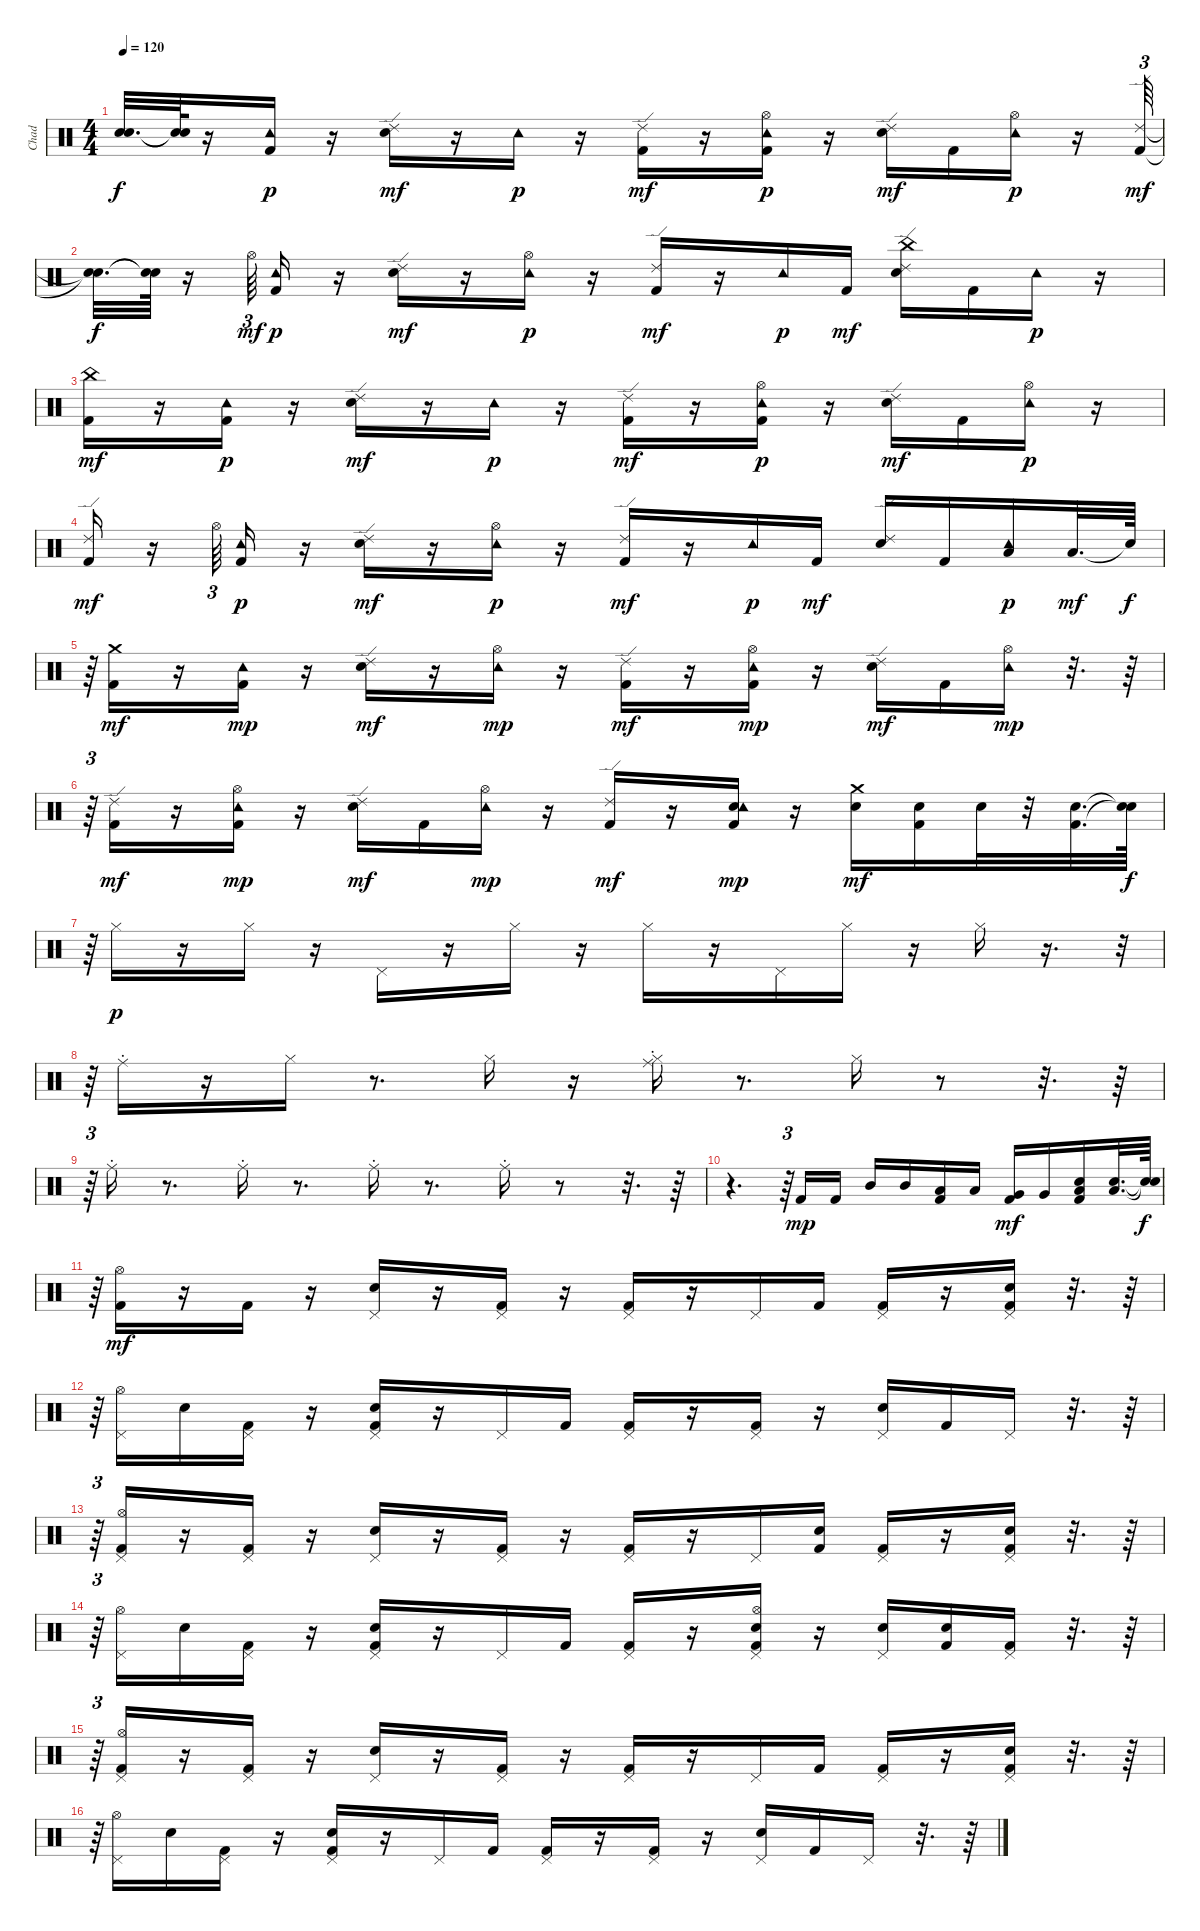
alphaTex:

\track ("Chad" "Chad") {instrument percussion}
\staff {score}
\articulation defaults
\ts (4 4)
\tempo 120
\clef neutral
\ks c
("Snare (hit)"{t} "Snare (hit)"{t}).32{d dy f} ("Snare (hit)"{t} "Snare (hit)"{t}).64 r.16 ("Kick (hit) 2" "Tambourine (hit)").16{dy p} r.16 ("Snare (hit) 2" "Ride (edge) 2").16{dy mf} r.16 "Tambourine (hit)".16{dy p} r.16 ("Kick (hit) 2" "Ride (edge) 2").16{dy mf} r.16 ("Kick (hit) 2" "Hi-Hat (open)" "Tambourine (hit)").16{dy p} r.16 ("Snare (hit) 2" "Ride (edge) 2").16{dy mf} "Kick (hit) 2".16 ("Hi-Hat (open)" "Tambourine (hit)").16{dy p} r.16 ("Kick (hit) 2" "Ride (edge) 2").64{tu (3 2) dy mf} |
("Snare (hit)"{t} "Snare (hit)"{t}).32{d dy f} ("Snare (hit)"{t} "Snare (hit)"{t}).64 r.16 "Hi-Hat (open)".64{tu (3 2) dy mf} ("Kick (hit) 2" "Tambourine (hit)").16{dy p} r.16 ("Snare (hit) 2" "Ride (edge) 2").16{dy mf} r.16 ("Hi-Hat (open)" "Tambourine (hit)").16{dy p} r.16 ("Kick (hit) 2" "Ride (edge) 2").16{dy mf} r.16 "Tambourine (hit)".16{dy p} "Kick (hit) 2".16{dy mf} ("Snare (hit) 2" "China (hit)" "Ride (edge) 2").16 "Kick (hit) 2".16 "Tambourine (hit)".16{dy p} r.16 |
("Kick (hit) 2" "China (hit)").16{dy mf} r.16 ("Kick (hit) 2" "Tambourine (hit)").16{dy p} r.16 ("Snare (hit) 2" "Ride (edge) 2").16{dy mf} r.16 "Tambourine (hit)".16{dy p} r.16 ("Kick (hit) 2" "Ride (edge) 2").16{dy mf} r.16 ("Kick (hit) 2" "Hi-Hat (open)" "Tambourine (hit)").16{dy p} r.16 ("Snare (hit) 2" "Ride (edge) 2").16{dy mf} "Kick (hit) 2".16 ("Hi-Hat (open)" "Tambourine (hit)").16{dy p} r.16 |
("Kick (hit) 2" "Ride (edge) 2").16{dy mf} r.16 "Hi-Hat (open)".64{tu (3 2)} ("Kick (hit) 2" "Tambourine (hit)").16{dy p} r.16 ("Snare (hit) 2" "Ride (edge) 2").16{dy mf} r.16 ("Hi-Hat (open)" "Tambourine (hit)").16{dy p} r.16 ("Kick (hit) 2" "Ride (edge) 2").16{dy mf} r.16 "Tambourine (hit)".16{dy p} "Kick (hit) 2".16{dy mf} ("Snare (hit) 2" "Ride (edge) 2").16 "Kick (hit) 2".16 ("Low Floor Tom (hit)" "Tambourine (hit)").16{dy p} "Low Floor Tom (hit)".32{d dy mf} "Snare (hit)"{t}.64{dy f} |
r.64{tu (3 2)} ("Kick (hit) 2" "Crash medium (hit)").16{dy mf} r.16 ("Kick (hit) 2" "Tambourine (hit)").16{dy mp} r.16 ("Snare (hit) 2" "Ride (edge) 2").16{dy mf} r.16 ("Hi-Hat (open)" "Tambourine (hit)").16{dy mp} r.16 ("Kick (hit) 2" "Ride (edge) 2").16{dy mf} r.16 ("Kick (hit) 2" "Hi-Hat (open)" "Tambourine (hit)").16{dy mp} r.16 ("Snare (hit) 2" "Ride (edge) 2").16{dy mf} "Kick (hit) 2".16 ("Hi-Hat (open)" "Tambourine (hit)").16{dy mp} r.32{d} r.64 |
r.64{tu (3 2)} ("Kick (hit) 2" "Ride (edge) 2").16{dy mf} r.16 ("Kick (hit) 2" "Hi-Hat (open)" "Tambourine (hit)").16{dy mp} r.16 ("Snare (hit) 2" "Ride (edge) 2").16{dy mf} "Kick (hit) 2".16 ("Hi-Hat (open)" "Tambourine (hit)").16{dy mp} r.16 ("Kick (hit) 2" "Ride (edge) 2").16{dy mf} r.16 ("Kick (hit) 2" "Snare (hit) 2" "Tambourine (hit)").16{dy mp} r.16 ("Snare (hit) 2" "Crash medium (hit)").16{dy mf} ("Kick (hit) 2" "Snare (hit) 2").16 "Snare (hit) 2".32 r.32 ("Kick (hit) 2" "Snare (hit) 2").32{d} ("Snare (hit)"{t} "Snare (hit)"{t}).64{dy f} |
r.64{tu (3 2)} "Hi-Hat (closed)".16{dy p} r.16 "Hi-Hat (closed)".16 r.16 "Pedal Hi-Hat (hit)".16 r.16 "Hi-Hat (closed)".16 r.16 "Hi-Hat (closed)".16 r.16 "Pedal Hi-Hat (hit)".16 "Hi-Hat (closed)".16 r.16 "Hi-Hat (closed)".16 r.16{d} r.32{tu (3 2)} |
r.64{tu (3 2)} "Ride (choke)".16 r.16 "Hi-Hat (closed)".16 r.8{d} "Hi-Hat (closed)".16 r.16 ("Hi-Hat (closed)" "Ride (choke)").16 r.8{d} "Hi-Hat (closed)".16 r.8 r.32{d} r.64 |
r.64{tu (3 2)} "Ride (choke)".16 r.8{d} "Ride (choke)".16 r.8{d} "Ride (choke)".16 r.8{d} "Ride (choke)".16 r.8 r.32{d} r.64 |
r.4{d} r.64{tu (3 2)} "Kick (hit) 2".16{dy mp} "Kick (hit) 2".16 "Mid Tom (hit)".16 "Mid Tom (hit)".16 ("Kick (hit) 2" "Low Tom (hit)").16 "Low Tom (hit)".16 ("Kick (hit) 2" "Very Low Tom (hit)").16{dy mf} "Very Low Tom (hit)".16 ("Kick (hit) 2" "Snare (hit) 2" "Low Floor Tom (hit)").16 ("Snare (hit) 2" "Low Floor Tom (hit)").32{d} ("Snare (hit)"{t} "Snare (hit)"{t}).64{dy f} |
r.64{tu (3 2)} ("Kick (hit) 2" "Hi-Hat (open)").16{dy mf} r.16 "Kick (hit) 2".16 r.16 ("Snare (hit) 2" "Pedal Hi-Hat (hit)").16 r.16 ("Kick (hit) 2" "Pedal Hi-Hat (hit)").16 r.16 ("Kick (hit) 2" "Pedal Hi-Hat (hit)").16 r.16 "Pedal Hi-Hat (hit)".16 "Kick (hit) 2".16 ("Kick (hit) 2" "Pedal Hi-Hat (hit)").16 r.16 ("Kick (hit) 2" "Snare (hit) 2" "Pedal Hi-Hat (hit)").16 r.32{d} r.64 |
r.64{tu (3 2)} ("Pedal Hi-Hat (hit)" "Hi-Hat (open)").16 "Snare (hit) 2".16 ("Kick (hit) 2" "Pedal Hi-Hat (hit)").16 r.16 ("Kick (hit) 2" "Snare (hit) 2" "Pedal Hi-Hat (hit)").16 r.16 "Pedal Hi-Hat (hit)".16 "Kick (hit) 2".16 ("Kick (hit) 2" "Pedal Hi-Hat (hit)").16 r.16 ("Kick (hit) 2" "Pedal Hi-Hat (hit)").16 r.16 ("Snare (hit) 2" "Pedal Hi-Hat (hit)").16 "Kick (hit) 2".16 "Pedal Hi-Hat (hit)".16 r.32{d} r.64 |
r.64{tu (3 2)} ("Kick (hit) 2" "Pedal Hi-Hat (hit)" "Hi-Hat (open)").16 r.16 ("Kick (hit) 2" "Pedal Hi-Hat (hit)").16 r.16 ("Snare (hit) 2" "Pedal Hi-Hat (hit)").16 r.16 ("Kick (hit) 2" "Pedal Hi-Hat (hit)").16 r.16 ("Kick (hit) 2" "Pedal Hi-Hat (hit)").16 r.16 "Pedal Hi-Hat (hit)".16 ("Kick (hit) 2" "Snare (hit) 2").16 ("Kick (hit) 2" "Pedal Hi-Hat (hit)").16 r.16 ("Kick (hit) 2" "Snare (hit) 2" "Pedal Hi-Hat (hit)").16 r.32{d} r.64 |
r.64{tu (3 2)} ("Pedal Hi-Hat (hit)" "Hi-Hat (open)").16 "Snare (hit) 2".16 ("Kick (hit) 2" "Pedal Hi-Hat (hit)").16 r.16 ("Kick (hit) 2" "Snare (hit) 2" "Pedal Hi-Hat (hit)").16 r.16 "Pedal Hi-Hat (hit)".16 "Kick (hit) 2".16 ("Kick (hit) 2" "Pedal Hi-Hat (hit)").16 r.16 ("Kick (hit) 2" "Snare (hit) 2" "Pedal Hi-Hat (hit)" "Hi-Hat (open)").16 r.16 ("Snare (hit) 2" "Pedal Hi-Hat (hit)").16 ("Kick (hit) 2" "Snare (hit) 2").16 ("Kick (hit) 2" "Pedal Hi-Hat (hit)").16 r.32{d} r.64 |
r.64{tu (3 2)} ("Kick (hit) 2" "Pedal Hi-Hat (hit)" "Hi-Hat (open)").16 r.16 ("Kick (hit) 2" "Pedal Hi-Hat (hit)").16 r.16 ("Snare (hit) 2" "Pedal Hi-Hat (hit)").16 r.16 ("Kick (hit) 2" "Pedal Hi-Hat (hit)").16 r.16 ("Kick (hit) 2" "Pedal Hi-Hat (hit)").16 r.16 "Pedal Hi-Hat (hit)".16 "Kick (hit) 2".16 ("Kick (hit) 2" "Pedal Hi-Hat (hit)").16 r.16 ("Kick (hit) 2" "Snare (hit) 2" "Pedal Hi-Hat (hit)").16 r.32{d} r.64 |
r.64{tu (3 2)} ("Pedal Hi-Hat (hit)" "Hi-Hat (open)").16 "Snare (hit) 2".16 ("Kick (hit) 2" "Pedal Hi-Hat (hit)").16 r.16 ("Kick (hit) 2" "Snare (hit) 2" "Pedal Hi-Hat (hit)").16 r.16 "Pedal Hi-Hat (hit)".16 "Kick (hit) 2".16 ("Kick (hit) 2" "Pedal Hi-Hat (hit)").16 r.16 ("Kick (hit) 2" "Pedal Hi-Hat (hit)").16 r.16 ("Snare (hit) 2" "Pedal Hi-Hat (hit)").16 "Kick (hit) 2".16 "Pedal Hi-Hat (hit)".16 r.32{d} r.64
